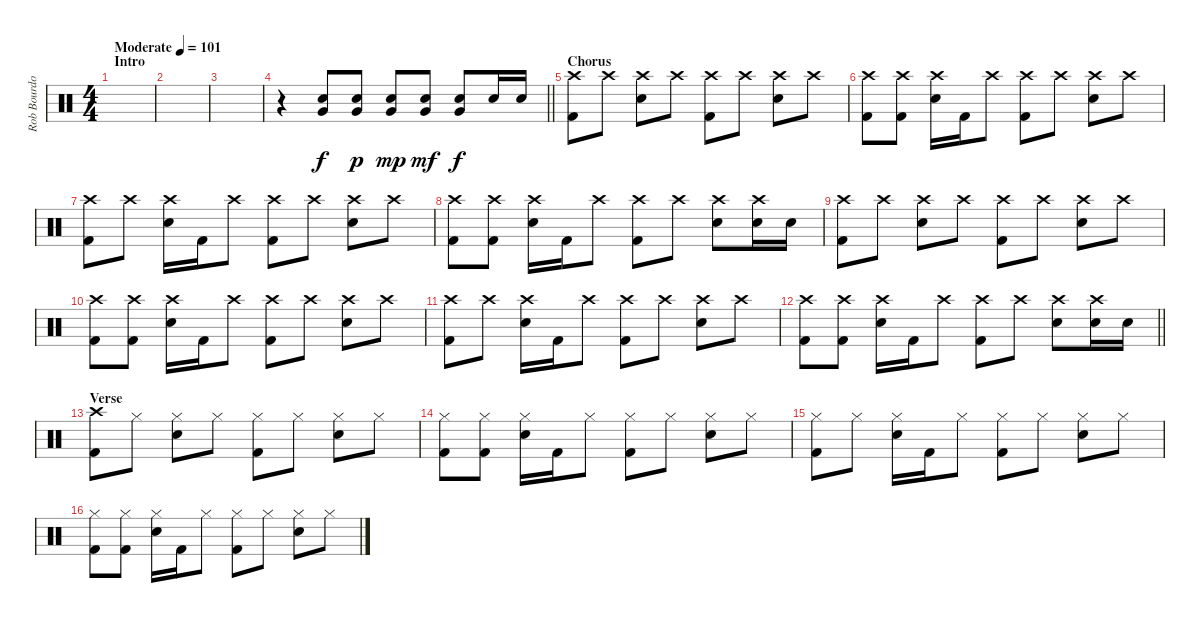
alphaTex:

\track ("Rob Bourdon" "Rob Bourdo") {instrument percussion}
\staff {score}
\articulation defaults
\ts (4 4)
\section ("" "Intro")
\tempo (101 "Moderate")
\clef neutral
\ks c
|
|
|
\barLineRight lightlight
r.4 ("Electric Snare (hit)" "Very Low Tom (hit)").8 ("Electric Snare (hit)" "Very Low Tom (hit)").8{dy p} ("Electric Snare (hit)" "Very Low Tom (hit)").8{dy mp} ("Electric Snare (hit)" "Very Low Tom (hit)").8{dy mf} ("Electric Snare (hit)" "Very Low Tom (hit)").8{dy f} "Electric Snare (hit)".16 "Electric Snare (hit)".16 |
\section ("" "Chorus")
("Crash high (hit)" "Kick (hit) 2").8 "Crash high (hit)".8 ("Crash high (hit)" "Electric Snare (hit)").8 "Crash high (hit)".8 ("Crash high (hit)" "Kick (hit) 2").8 "Crash high (hit)".8 ("Crash high (hit)" "Electric Snare (hit)").8 "Crash high (hit)".8 |
("Crash high (hit)" "Kick (hit) 2").8 ("Crash high (hit)" "Kick (hit) 2").8 ("Crash high (hit)" "Electric Snare (hit)").16 "Kick (hit) 2".16 "Crash high (hit)".8 ("Crash high (hit)" "Kick (hit) 2").8 "Crash high (hit)".8 ("Crash high (hit)" "Electric Snare (hit)").8 "Crash high (hit)".8 |
("Crash high (hit)" "Kick (hit) 2").8 "Crash high (hit)".8 ("Crash high (hit)" "Electric Snare (hit)").16 "Kick (hit) 2".16 "Crash high (hit)".8 ("Crash high (hit)" "Kick (hit) 2").8 "Crash high (hit)".8 ("Crash high (hit)" "Electric Snare (hit)").8 "Crash high (hit)".8 |
("Crash high (hit)" "Kick (hit) 2").8 ("Crash high (hit)" "Kick (hit) 2").8 ("Crash high (hit)" "Electric Snare (hit)").16 "Kick (hit) 2".16 "Crash high (hit)".8 ("Crash high (hit)" "Kick (hit) 2").8 "Crash high (hit)".8 ("Crash high (hit)" "Electric Snare (hit)").8 ("Crash high (hit)" "Electric Snare (hit)").16 "Electric Snare (hit)".16 |
("Crash high (hit)" "Kick (hit) 2").8 "Crash high (hit)".8 ("Crash high (hit)" "Electric Snare (hit)").8 "Crash high (hit)".8 ("Crash high (hit)" "Kick (hit) 2").8 "Crash high (hit)".8 ("Crash high (hit)" "Electric Snare (hit)").8 "Crash high (hit)".8 |
("Crash high (hit)" "Kick (hit) 2").8 ("Crash high (hit)" "Kick (hit) 2").8 ("Crash high (hit)" "Electric Snare (hit)").16 "Kick (hit) 2".16 "Crash high (hit)".8 ("Crash high (hit)" "Kick (hit) 2").8 "Crash high (hit)".8 ("Crash high (hit)" "Electric Snare (hit)").8 "Crash high (hit)".8 |
("Crash high (hit)" "Kick (hit) 2").8 "Crash high (hit)".8 ("Crash high (hit)" "Electric Snare (hit)").16 "Kick (hit) 2".16 "Crash high (hit)".8 ("Crash high (hit)" "Kick (hit) 2").8 "Crash high (hit)".8 ("Crash high (hit)" "Electric Snare (hit)").8 "Crash high (hit)".8 |
\barLineRight lightlight
("Crash high (hit)" "Kick (hit) 2").8 ("Crash high (hit)" "Kick (hit) 2").8 ("Crash high (hit)" "Electric Snare (hit)").16 "Kick (hit) 2".16 "Crash high (hit)".8 ("Crash high (hit)" "Kick (hit) 2").8 "Crash high (hit)".8 ("Crash high (hit)" "Electric Snare (hit)").8 ("Crash high (hit)" "Electric Snare (hit)").16 "Electric Snare (hit)".16 |
\section ("" "Verse")
("Crash high (hit)" "Kick (hit) 2").8 "Hi-Hat (closed)".8 ("Hi-Hat (closed)" "Electric Snare (hit)").8 "Hi-Hat (closed)".8 ("Hi-Hat (closed)" "Kick (hit) 2").8 "Hi-Hat (closed)".8 ("Hi-Hat (closed)" "Electric Snare (hit)").8 "Hi-Hat (closed)".8 |
("Hi-Hat (closed)" "Kick (hit) 2").8 ("Hi-Hat (closed)" "Kick (hit) 2").8 ("Hi-Hat (closed)" "Electric Snare (hit)").16 "Kick (hit) 2".16 "Hi-Hat (closed)".8 ("Hi-Hat (closed)" "Kick (hit) 2").8 "Hi-Hat (closed)".8 ("Hi-Hat (closed)" "Electric Snare (hit)").8 "Hi-Hat (closed)".8 |
("Hi-Hat (closed)" "Kick (hit) 2").8 "Hi-Hat (closed)".8 ("Hi-Hat (closed)" "Electric Snare (hit)").16 "Kick (hit) 2".16 "Hi-Hat (closed)".8 ("Hi-Hat (closed)" "Kick (hit) 2").8 "Hi-Hat (closed)".8 ("Hi-Hat (closed)" "Electric Snare (hit)").8 "Hi-Hat (closed)".8 |
("Hi-Hat (closed)" "Kick (hit) 2").8 ("Hi-Hat (closed)" "Kick (hit) 2").8 ("Hi-Hat (closed)" "Electric Snare (hit)").16 "Kick (hit) 2".16 "Hi-Hat (closed)".8 ("Hi-Hat (closed)" "Kick (hit) 2").8 "Hi-Hat (closed)".8 ("Hi-Hat (closed)" "Electric Snare (hit)").8 "Hi-Hat (closed)".8
